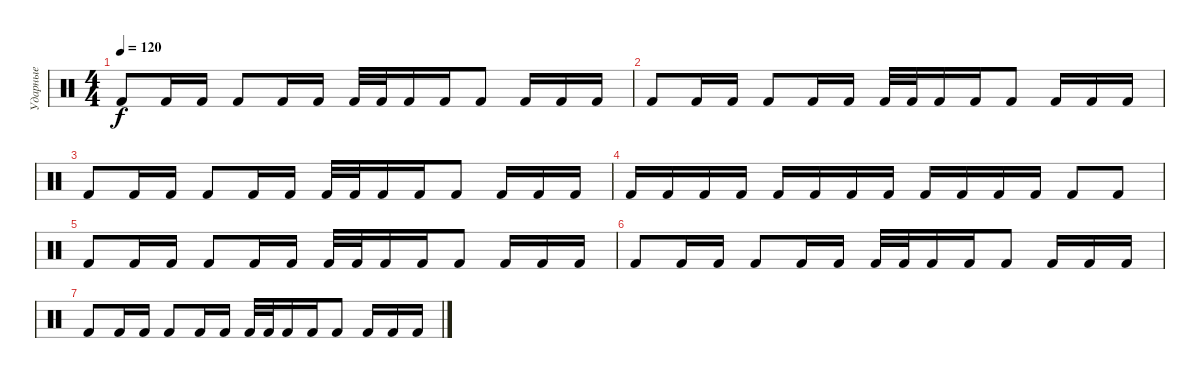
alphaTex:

\track ("Ударные" "Ударные") {instrument percussion}
\staff {score}
\articulation defaults
\ts (4 4)
\tempo 120
\clef neutral
\ks c "Kick (hit) 2".8{dy f} "Kick (hit) 2".16 "Kick (hit) 2".16 "Kick (hit) 2".8 "Kick (hit) 2".16 "Kick (hit) 2".16 "Kick (hit) 2".32 "Kick (hit) 2".32 "Kick (hit) 2".16 "Kick (hit) 2".16 "Kick (hit) 2".8 "Kick (hit) 2".16 "Kick (hit) 2".16 "Kick (hit) 2".16
|
"Kick (hit) 2".8 "Kick (hit) 2".16 "Kick (hit) 2".16 "Kick (hit) 2".8 "Kick (hit) 2".16 "Kick (hit) 2".16 "Kick (hit) 2".32 "Kick (hit) 2".32 "Kick (hit) 2".16 "Kick (hit) 2".16 "Kick (hit) 2".8 "Kick (hit) 2".16 "Kick (hit) 2".16 "Kick (hit) 2".16 |
"Kick (hit) 2".8 "Kick (hit) 2".16 "Kick (hit) 2".16 "Kick (hit) 2".8 "Kick (hit) 2".16 "Kick (hit) 2".16 "Kick (hit) 2".32 "Kick (hit) 2".32 "Kick (hit) 2".16 "Kick (hit) 2".16 "Kick (hit) 2".8 "Kick (hit) 2".16 "Kick (hit) 2".16 "Kick (hit) 2".16 |
"Kick (hit) 2".16 "Kick (hit) 2".16 "Kick (hit) 2".16 "Kick (hit) 2".16 "Kick (hit) 2".16 "Kick (hit) 2".16 "Kick (hit) 2".16 "Kick (hit) 2".16 "Kick (hit) 2".16 "Kick (hit) 2".16 "Kick (hit) 2".16 "Kick (hit) 2".16 "Kick (hit) 2".8 "Kick (hit) 2".8 |
"Kick (hit) 2".8 "Kick (hit) 2".16 "Kick (hit) 2".16 "Kick (hit) 2".8 "Kick (hit) 2".16 "Kick (hit) 2".16 "Kick (hit) 2".32 "Kick (hit) 2".32 "Kick (hit) 2".16 "Kick (hit) 2".16 "Kick (hit) 2".8 "Kick (hit) 2".16 "Kick (hit) 2".16 "Kick (hit) 2".16 |
"Kick (hit) 2".8 "Kick (hit) 2".16 "Kick (hit) 2".16 "Kick (hit) 2".8 "Kick (hit) 2".16 "Kick (hit) 2".16 "Kick (hit) 2".32 "Kick (hit) 2".32 "Kick (hit) 2".16 "Kick (hit) 2".16 "Kick (hit) 2".8 "Kick (hit) 2".16 "Kick (hit) 2".16 "Kick (hit) 2".16 |
"Kick (hit) 2".8 "Kick (hit) 2".16 "Kick (hit) 2".16 "Kick (hit) 2".8 "Kick (hit) 2".16 "Kick (hit) 2".16 "Kick (hit) 2".32 "Kick (hit) 2".32 "Kick (hit) 2".16 "Kick (hit) 2".16 "Kick (hit) 2".8 "Kick (hit) 2".16 "Kick (hit) 2".16 "Kick (hit) 2".16
